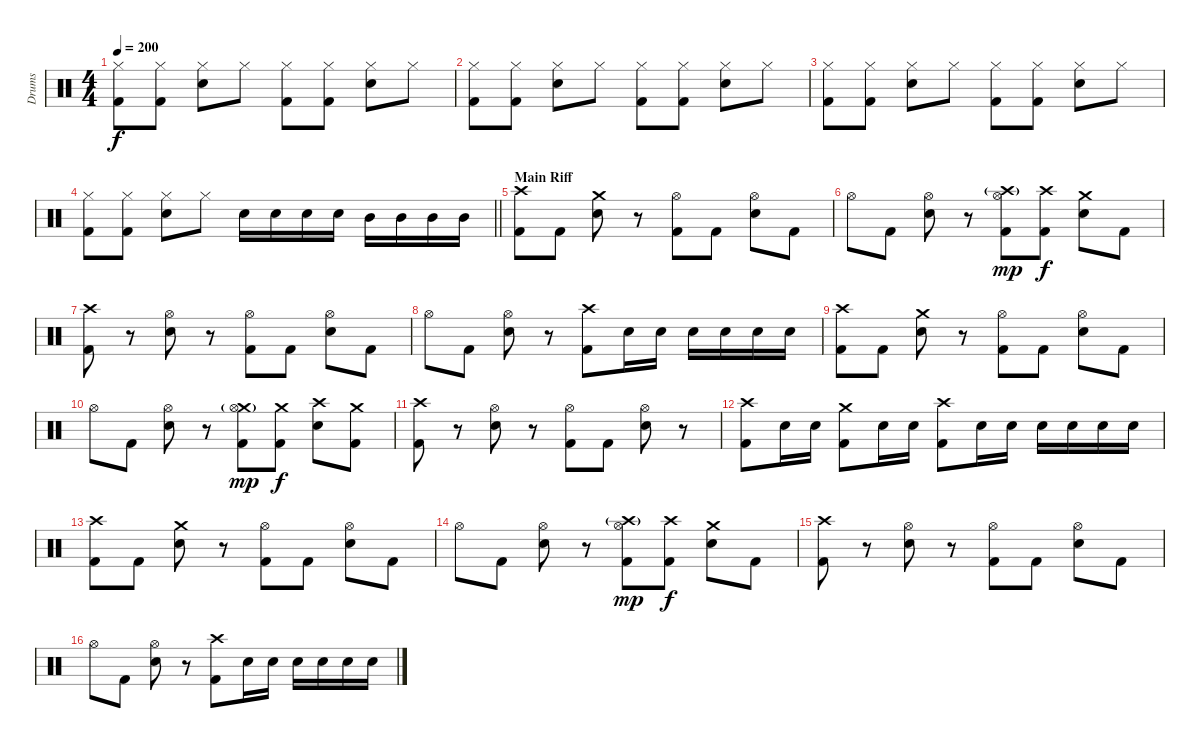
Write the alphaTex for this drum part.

\track ("Drums" "Drums") {instrument percussion}
\staff {score}
\articulation defaults
\ts (4 4)
\tempo 200
\clef neutral
\ks c
("Hi-Hat (closed)" "Kick (hit) 2").8{dy f} ("Hi-Hat (closed)" "Kick (hit) 2").8 ("Hi-Hat (closed)" "Electric Snare (hit)").8 "Hi-Hat (closed)".8 ("Hi-Hat (closed)" "Kick (hit) 2").8 ("Hi-Hat (closed)" "Kick (hit) 2").8 ("Hi-Hat (closed)" "Electric Snare (hit)").8 "Hi-Hat (closed)".8 |
("Hi-Hat (closed)" "Kick (hit) 2").8 ("Hi-Hat (closed)" "Kick (hit) 2").8 ("Hi-Hat (closed)" "Electric Snare (hit)").8 "Hi-Hat (closed)".8 ("Hi-Hat (closed)" "Kick (hit) 2").8 ("Hi-Hat (closed)" "Kick (hit) 2").8 ("Hi-Hat (closed)" "Electric Snare (hit)").8 "Hi-Hat (closed)".8 |
("Hi-Hat (closed)" "Kick (hit) 2").8 ("Hi-Hat (closed)" "Kick (hit) 2").8 ("Hi-Hat (closed)" "Electric Snare (hit)").8 "Hi-Hat (closed)".8 ("Hi-Hat (closed)" "Kick (hit) 2").8 ("Hi-Hat (closed)" "Kick (hit) 2").8 ("Hi-Hat (closed)" "Electric Snare (hit)").8 "Hi-Hat (closed)".8 |
\barLineRight lightlight
("Hi-Hat (closed)" "Kick (hit) 2").8 ("Hi-Hat (closed)" "Kick (hit) 2").8 ("Hi-Hat (closed)" "Electric Snare (hit)").8 "Hi-Hat (closed)".8 "Electric Snare (hit)".16 "Electric Snare (hit)".16 "Electric Snare (hit)".16 "Electric Snare (hit)".16 "Mid Tom (hit)".16 "Mid Tom (hit)".16 "Mid Tom (hit)".16 "Mid Tom (hit)".16 |
\section ("" "Main Riff")
("Crash high (hit)" "Kick (hit) 2").8 "Kick (hit) 2".8 ("Crash medium (hit)" "Electric Snare (hit)").8 r.8 ("Hi-Hat (open)" "Kick (hit) 2").8 "Kick (hit) 2".8 ("Hi-Hat (open)" "Electric Snare (hit)").8 "Kick (hit) 2".8 |
"Hi-Hat (open)".8 "Kick (hit) 2".8 ("Hi-Hat (open)" "Electric Snare (hit)").8 r.8 ("Crash high (hit)"{g} "Hi-Hat (open)" "Kick (hit) 2").8{dy mp} ("Crash high (hit)" "Kick (hit) 2").8{dy f} ("Crash medium (hit)" "Electric Snare (hit)").8 "Kick (hit) 2".8 |
("Crash high (hit)" "Kick (hit) 2").8 r.8 ("Hi-Hat (open)" "Electric Snare (hit)").8 r.8 ("Hi-Hat (open)" "Kick (hit) 2").8 "Kick (hit) 2".8 ("Hi-Hat (open)" "Electric Snare (hit)").8 "Kick (hit) 2".8 |
"Hi-Hat (open)".8 "Kick (hit) 2".8 ("Hi-Hat (open)" "Electric Snare (hit)").8 r.8 ("Crash high (hit)" "Kick (hit) 2").8 "Electric Snare (hit)".16 "Electric Snare (hit)".16 "Electric Snare (hit)".16 "Electric Snare (hit)".16 "Electric Snare (hit)".16 "Electric Snare (hit)".16 |
("Crash high (hit)" "Kick (hit) 2").8 "Kick (hit) 2".8 ("Crash medium (hit)" "Electric Snare (hit)").8 r.8 ("Hi-Hat (open)" "Kick (hit) 2").8 "Kick (hit) 2".8 ("Hi-Hat (open)" "Electric Snare (hit)").8 "Kick (hit) 2".8 |
"Hi-Hat (open)".8 "Kick (hit) 2".8 ("Hi-Hat (open)" "Electric Snare (hit)").8 r.8 ("Crash medium (hit)"{g} "Hi-Hat (open)" "Kick (hit) 2").8{dy mp} ("Crash medium (hit)" "Kick (hit) 2").8{dy f} ("Crash high (hit)" "Electric Snare (hit)").8 ("Crash medium (hit)" "Kick (hit) 2").8 |
("Crash high (hit)" "Kick (hit) 2").8 r.8 ("Hi-Hat (open)" "Electric Snare (hit)").8 r.8 ("Hi-Hat (open)" "Kick (hit) 2").8 "Kick (hit) 2".8 ("Hi-Hat (open)" "Electric Snare (hit)").8 r.8 |
("Crash high (hit)" "Kick (hit) 2").8 "Electric Snare (hit)".16 "Electric Snare (hit)".16 ("Crash medium (hit)" "Kick (hit) 2").8 "Electric Snare (hit)".16 "Electric Snare (hit)".16 ("Crash high (hit)" "Kick (hit) 2").8 "Electric Snare (hit)".16 "Electric Snare (hit)".16 "Electric Snare (hit)".16 "Electric Snare (hit)".16 "Electric Snare (hit)".16 "Electric Snare (hit)".16 |
("Crash high (hit)" "Kick (hit) 2").8 "Kick (hit) 2".8 ("Crash medium (hit)" "Electric Snare (hit)").8 r.8 ("Hi-Hat (open)" "Kick (hit) 2").8 "Kick (hit) 2".8 ("Hi-Hat (open)" "Electric Snare (hit)").8 "Kick (hit) 2".8 |
"Hi-Hat (open)".8 "Kick (hit) 2".8 ("Hi-Hat (open)" "Electric Snare (hit)").8 r.8 ("Crash high (hit)"{g} "Hi-Hat (open)" "Kick (hit) 2").8{dy mp} ("Crash high (hit)" "Kick (hit) 2").8{dy f} ("Crash medium (hit)" "Electric Snare (hit)").8 "Kick (hit) 2".8 |
("Crash high (hit)" "Kick (hit) 2").8 r.8 ("Hi-Hat (open)" "Electric Snare (hit)").8 r.8 ("Hi-Hat (open)" "Kick (hit) 2").8 "Kick (hit) 2".8 ("Hi-Hat (open)" "Electric Snare (hit)").8 "Kick (hit) 2".8 |
"Hi-Hat (open)".8 "Kick (hit) 2".8 ("Hi-Hat (open)" "Electric Snare (hit)").8 r.8 ("Crash high (hit)" "Kick (hit) 2").8 "Electric Snare (hit)".16 "Electric Snare (hit)".16 "Electric Snare (hit)".16 "Electric Snare (hit)".16 "Electric Snare (hit)".16 "Electric Snare (hit)".16
